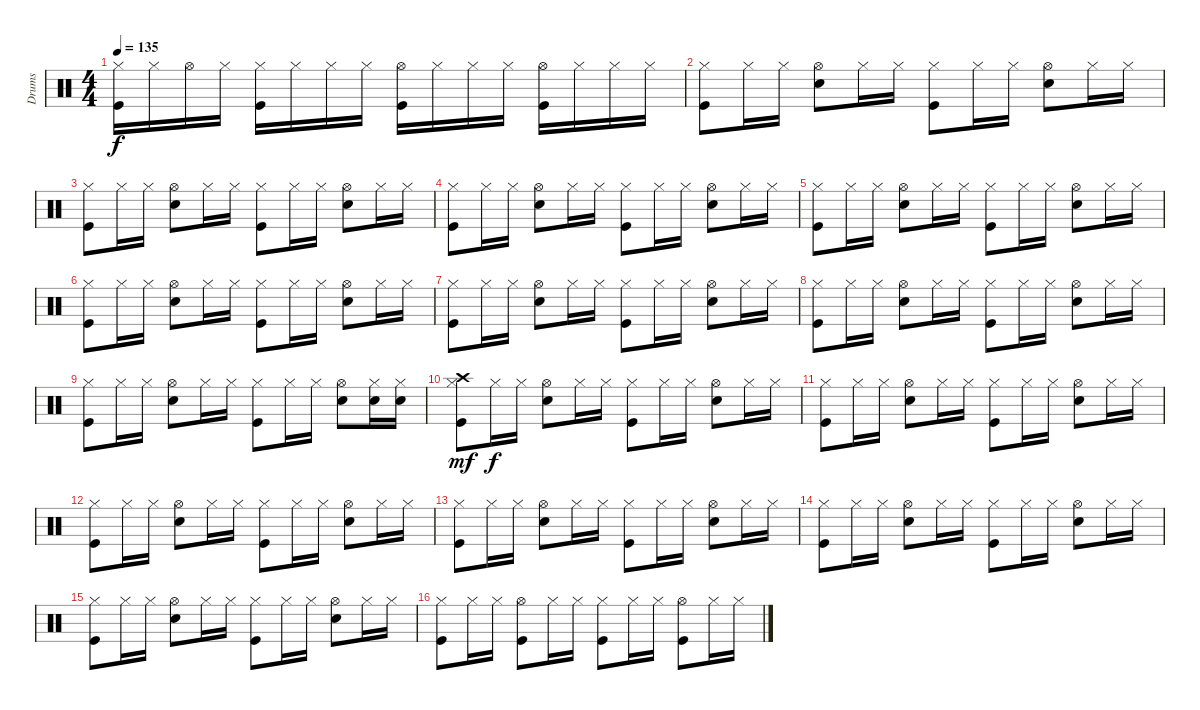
\track ("Drums" "Drums") {instrument percussion}
\staff {score}
\articulation defaults
\ts (4 4)
\tempo 135
\clef neutral
\ks c
("Hi-Hat (closed)" "Kick (hit)").16{dy f} "Hi-Hat (closed)".16 "Hi-Hat (open)".16 "Hi-Hat (closed)".16 ("Hi-Hat (closed)" "Kick (hit)").16 "Hi-Hat (closed)".16 "Hi-Hat (closed)".16 "Hi-Hat (closed)".16 ("Hi-Hat (open)" "Kick (hit)").16 "Hi-Hat (closed)".16 "Hi-Hat (closed)".16 "Hi-Hat (closed)".16 ("Hi-Hat (open)" "Kick (hit)").16 "Hi-Hat (closed)".16 "Hi-Hat (closed)".16 "Hi-Hat (closed)".16 |
("Hi-Hat (closed)" "Kick (hit)").8 "Hi-Hat (closed)".16 "Hi-Hat (closed)".16 ("Hi-Hat (open)" "Electric Snare (hit)").8 "Hi-Hat (closed)".16 "Hi-Hat (closed)".16 ("Hi-Hat (closed)" "Kick (hit)").8 "Hi-Hat (closed)".16 "Hi-Hat (closed)".16 ("Hi-Hat (open)" "Electric Snare (hit)").8 "Hi-Hat (closed)".16 "Hi-Hat (closed)".16 |
("Hi-Hat (closed)" "Kick (hit)").8 "Hi-Hat (closed)".16 "Hi-Hat (closed)".16 ("Hi-Hat (open)" "Electric Snare (hit)").8 "Hi-Hat (closed)".16 "Hi-Hat (closed)".16 ("Hi-Hat (closed)" "Kick (hit)").8 "Hi-Hat (closed)".16 "Hi-Hat (closed)".16 ("Hi-Hat (open)" "Electric Snare (hit)").8 "Hi-Hat (closed)".16 "Hi-Hat (closed)".16 |
("Hi-Hat (closed)" "Kick (hit)").8 "Hi-Hat (closed)".16 "Hi-Hat (closed)".16 ("Hi-Hat (open)" "Electric Snare (hit)").8 "Hi-Hat (closed)".16 "Hi-Hat (closed)".16 ("Hi-Hat (closed)" "Kick (hit)").8 "Hi-Hat (closed)".16 "Hi-Hat (closed)".16 ("Hi-Hat (open)" "Electric Snare (hit)").8 "Hi-Hat (closed)".16 "Hi-Hat (closed)".16 |
("Hi-Hat (closed)" "Kick (hit)").8 "Hi-Hat (closed)".16 "Hi-Hat (closed)".16 ("Hi-Hat (open)" "Electric Snare (hit)").8 "Hi-Hat (closed)".16 "Hi-Hat (closed)".16 ("Hi-Hat (closed)" "Kick (hit)").8 "Hi-Hat (closed)".16 "Hi-Hat (closed)".16 ("Hi-Hat (open)" "Electric Snare (hit)").8 "Hi-Hat (closed)".16 "Hi-Hat (closed)".16 |
("Hi-Hat (closed)" "Kick (hit)").8 "Hi-Hat (closed)".16 "Hi-Hat (closed)".16 ("Hi-Hat (open)" "Electric Snare (hit)").8 "Hi-Hat (closed)".16 "Hi-Hat (closed)".16 ("Hi-Hat (closed)" "Kick (hit)").8 "Hi-Hat (closed)".16 "Hi-Hat (closed)".16 ("Hi-Hat (open)" "Electric Snare (hit)").8 "Hi-Hat (closed)".16 "Hi-Hat (closed)".16 |
("Hi-Hat (closed)" "Kick (hit)").8 "Hi-Hat (closed)".16 "Hi-Hat (closed)".16 ("Hi-Hat (open)" "Electric Snare (hit)").8 "Hi-Hat (closed)".16 "Hi-Hat (closed)".16 ("Hi-Hat (closed)" "Kick (hit)").8 "Hi-Hat (closed)".16 "Hi-Hat (closed)".16 ("Hi-Hat (open)" "Electric Snare (hit)").8 "Hi-Hat (closed)".16 "Hi-Hat (closed)".16 |
("Hi-Hat (closed)" "Kick (hit)").8 "Hi-Hat (closed)".16 "Hi-Hat (closed)".16 ("Hi-Hat (open)" "Electric Snare (hit)").8 "Hi-Hat (closed)".16 "Hi-Hat (closed)".16 ("Hi-Hat (closed)" "Kick (hit)").8 "Hi-Hat (closed)".16 "Hi-Hat (closed)".16 ("Hi-Hat (open)" "Electric Snare (hit)").8 "Hi-Hat (closed)".16 "Hi-Hat (closed)".16 |
("Hi-Hat (closed)" "Kick (hit)").8 "Hi-Hat (closed)".16 "Hi-Hat (closed)".16 ("Hi-Hat (open)" "Electric Snare (hit)").8 "Hi-Hat (closed)".16 "Hi-Hat (closed)".16 ("Hi-Hat (closed)" "Kick (hit)").8 "Hi-Hat (closed)".16 "Hi-Hat (closed)".16 ("Hi-Hat (open)" "Electric Snare (hit)").8 ("Hi-Hat (closed)" "Electric Snare (hit)").16 ("Hi-Hat (closed)" "Electric Snare (hit)").16 |
("Hi-Hat (closed)" "Crash high (hit)" "Kick (hit)").8{dy mf} "Hi-Hat (closed)".16{dy f} "Hi-Hat (closed)".16 ("Hi-Hat (open)" "Electric Snare (hit)").8 "Hi-Hat (closed)".16 "Hi-Hat (closed)".16 ("Hi-Hat (closed)" "Kick (hit)").8 "Hi-Hat (closed)".16 "Hi-Hat (closed)".16 ("Hi-Hat (open)" "Electric Snare (hit)").8 "Hi-Hat (closed)".16 "Hi-Hat (closed)".16 |
("Hi-Hat (closed)" "Kick (hit)").8 "Hi-Hat (closed)".16 "Hi-Hat (closed)".16 ("Hi-Hat (open)" "Electric Snare (hit)").8 "Hi-Hat (closed)".16 "Hi-Hat (closed)".16 ("Hi-Hat (closed)" "Kick (hit)").8 "Hi-Hat (closed)".16 "Hi-Hat (closed)".16 ("Hi-Hat (open)" "Electric Snare (hit)").8 "Hi-Hat (closed)".16 "Hi-Hat (closed)".16 |
("Hi-Hat (closed)" "Kick (hit)").8 "Hi-Hat (closed)".16 "Hi-Hat (closed)".16 ("Hi-Hat (open)" "Electric Snare (hit)").8 "Hi-Hat (closed)".16 "Hi-Hat (closed)".16 ("Hi-Hat (closed)" "Kick (hit)").8 "Hi-Hat (closed)".16 "Hi-Hat (closed)".16 ("Hi-Hat (open)" "Electric Snare (hit)").8 "Hi-Hat (closed)".16 "Hi-Hat (closed)".16 |
("Hi-Hat (closed)" "Kick (hit)").8 "Hi-Hat (closed)".16 "Hi-Hat (closed)".16 ("Hi-Hat (open)" "Electric Snare (hit)").8 "Hi-Hat (closed)".16 "Hi-Hat (closed)".16 ("Hi-Hat (closed)" "Kick (hit)").8 "Hi-Hat (closed)".16 "Hi-Hat (closed)".16 ("Hi-Hat (open)" "Electric Snare (hit)").8 "Hi-Hat (closed)".16 "Hi-Hat (closed)".16 |
("Hi-Hat (closed)" "Kick (hit)").8 "Hi-Hat (closed)".16 "Hi-Hat (closed)".16 ("Hi-Hat (open)" "Electric Snare (hit)").8 "Hi-Hat (closed)".16 "Hi-Hat (closed)".16 ("Hi-Hat (closed)" "Kick (hit)").8 "Hi-Hat (closed)".16 "Hi-Hat (closed)".16 ("Hi-Hat (open)" "Electric Snare (hit)").8 "Hi-Hat (closed)".16 "Hi-Hat (closed)".16 |
("Hi-Hat (closed)" "Kick (hit)").8 "Hi-Hat (closed)".16 "Hi-Hat (closed)".16 ("Hi-Hat (open)" "Electric Snare (hit)").8 "Hi-Hat (closed)".16 "Hi-Hat (closed)".16 ("Hi-Hat (closed)" "Kick (hit)").8 "Hi-Hat (closed)".16 "Hi-Hat (closed)".16 ("Hi-Hat (open)" "Electric Snare (hit)").8 "Hi-Hat (closed)".16 "Hi-Hat (closed)".16 |
("Hi-Hat (closed)" "Kick (hit)").8 "Hi-Hat (closed)".16 "Hi-Hat (closed)".16 ("Hi-Hat (open)" "Kick (hit)").8 "Hi-Hat (closed)".16 "Hi-Hat (closed)".16 ("Hi-Hat (closed)" "Kick (hit)").8 "Hi-Hat (closed)".16 "Hi-Hat (closed)".16 ("Hi-Hat (open)" "Kick (hit)").8 "Hi-Hat (closed)".16 "Hi-Hat (closed)".16
